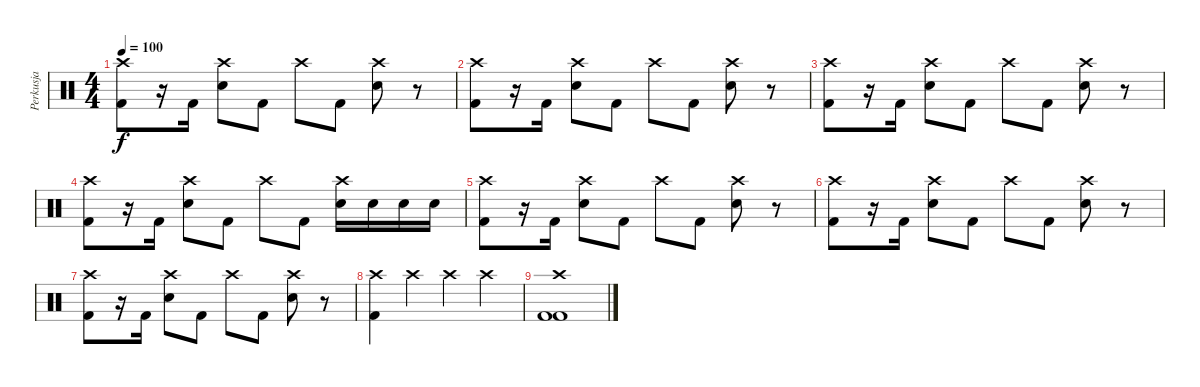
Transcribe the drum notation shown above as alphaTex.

\track ("Perkusja" "Perkusja") {instrument percussion}
\staff {score}
\articulation defaults
\ts (4 4)
\tempo 100
\clef neutral
\ks c
("Crash high (hit)" "Kick (hit) 2").8{dy f} r.16 "Kick (hit) 2".16 ("Crash high (hit)" "Electric Snare (hit)").8 "Kick (hit) 2".8 "Crash high (hit)".8 "Kick (hit) 2".8 ("Crash high (hit)" "Electric Snare (hit)").8 r.8 |
("Crash high (hit)" "Kick (hit) 2").8 r.16 "Kick (hit) 2".16 ("Crash high (hit)" "Electric Snare (hit)").8 "Kick (hit) 2".8 "Crash high (hit)".8 "Kick (hit) 2".8 ("Crash high (hit)" "Electric Snare (hit)").8 r.8 |
("Crash high (hit)" "Kick (hit) 2").8 r.16 "Kick (hit) 2".16 ("Crash high (hit)" "Electric Snare (hit)").8 "Kick (hit) 2".8 "Crash high (hit)".8 "Kick (hit) 2".8 ("Crash high (hit)" "Electric Snare (hit)").8 r.8 |
("Crash high (hit)" "Kick (hit) 2").8 r.16 "Kick (hit) 2".16 ("Crash high (hit)" "Electric Snare (hit)").8 "Kick (hit) 2".8 "Crash high (hit)".8 "Kick (hit) 2".8 ("Crash high (hit)" "Electric Snare (hit)").16 "Electric Snare (hit)".16 "Electric Snare (hit)".16 "Electric Snare (hit)".16 |
("Crash high (hit)" "Kick (hit) 2").8 r.16 "Kick (hit) 2".16 ("Crash high (hit)" "Electric Snare (hit)").8 "Kick (hit) 2".8 "Crash high (hit)".8 "Kick (hit) 2".8 ("Crash high (hit)" "Electric Snare (hit)").8 r.8 |
("Crash high (hit)" "Kick (hit) 2").8 r.16 "Kick (hit) 2".16 ("Crash high (hit)" "Electric Snare (hit)").8 "Kick (hit) 2".8 "Crash high (hit)".8 "Kick (hit) 2".8 ("Crash high (hit)" "Electric Snare (hit)").8 r.8 |
("Crash high (hit)" "Kick (hit) 2").8 r.16 "Kick (hit) 2".16 ("Crash high (hit)" "Electric Snare (hit)").8 "Kick (hit) 2".8 "Crash high (hit)".8 "Kick (hit) 2".8 ("Crash high (hit)" "Electric Snare (hit)").8 r.8 |
("Crash high (hit)" "Kick (hit) 2").4 "Crash high (hit)".4 "Crash high (hit)".4 "Crash high (hit)".4 |
("Crash high (hit)" "Kick (hit) 2" "Kick (hit) 2").1
